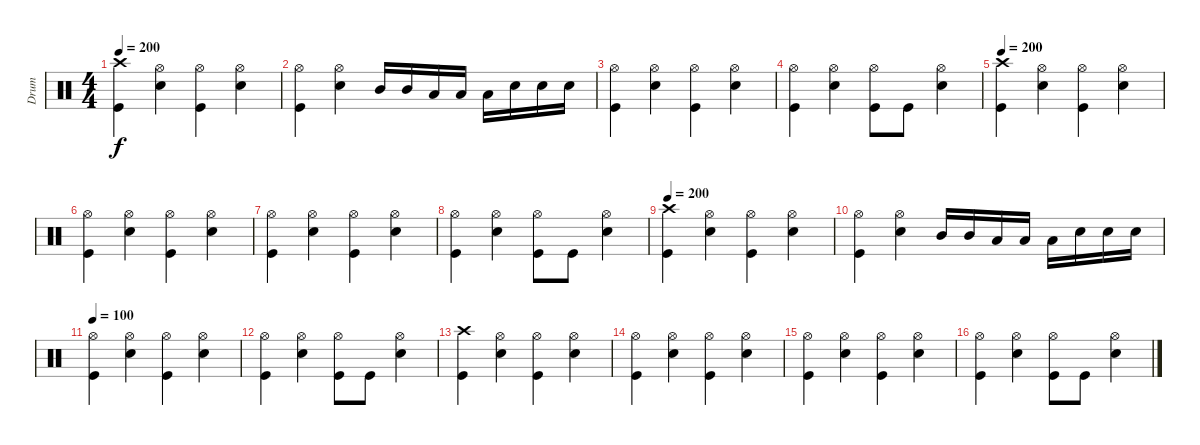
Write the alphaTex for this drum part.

\track ("Drum" "Drum") {instrument percussion}
\staff {score}
\articulation defaults
\ts (4 4)
\tempo 200
\clef neutral
\ks c
("Crash high (hit)" "Kick (hit)").4{dy f} ("Hi-Hat (open)" "Electric Snare (hit)").4 ("Hi-Hat (open)" "Kick (hit)").4 ("Hi-Hat (open)" "Electric Snare (hit)").4 |
("Hi-Hat (open)" "Kick (hit)").4 ("Hi-Hat (open)" "Electric Snare (hit)").4 "Mid Tom (hit)".16 "Mid Tom (hit)".16 "Low Tom (hit)".16 "Low Tom (hit)".16 "Low Tom (hit)".16 "Electric Snare (hit)".16 "Electric Snare (hit)".16 "Electric Snare (hit)".16 |
("Hi-Hat (open)" "Kick (hit)").4 ("Hi-Hat (open)" "Electric Snare (hit)").4 ("Hi-Hat (open)" "Kick (hit)").4 ("Hi-Hat (open)" "Electric Snare (hit)").4 |
("Hi-Hat (open)" "Kick (hit)").4 ("Hi-Hat (open)" "Electric Snare (hit)").4 ("Hi-Hat (open)" "Kick (hit)").8 "Kick (hit)".8 ("Hi-Hat (open)" "Electric Snare (hit)").4 |
\tempo 200
("Crash high (hit)" "Kick (hit)").4 ("Hi-Hat (open)" "Electric Snare (hit)").4 ("Hi-Hat (open)" "Kick (hit)").4 ("Hi-Hat (open)" "Electric Snare (hit)").4 |
("Hi-Hat (open)" "Kick (hit)").4 ("Hi-Hat (open)" "Electric Snare (hit)").4 ("Hi-Hat (open)" "Kick (hit)").4 ("Hi-Hat (open)" "Electric Snare (hit)").4 |
("Hi-Hat (open)" "Kick (hit)").4 ("Hi-Hat (open)" "Electric Snare (hit)").4 ("Hi-Hat (open)" "Kick (hit)").4 ("Hi-Hat (open)" "Electric Snare (hit)").4 |
("Hi-Hat (open)" "Kick (hit)").4 ("Hi-Hat (open)" "Electric Snare (hit)").4 ("Hi-Hat (open)" "Kick (hit)").8 "Kick (hit)".8 ("Hi-Hat (open)" "Electric Snare (hit)").4 |
\tempo 200
("Crash high (hit)" "Kick (hit)").4 ("Hi-Hat (open)" "Electric Snare (hit)").4 ("Hi-Hat (open)" "Kick (hit)").4 ("Hi-Hat (open)" "Electric Snare (hit)").4 |
("Hi-Hat (open)" "Kick (hit)").4 ("Hi-Hat (open)" "Electric Snare (hit)").4 "Mid Tom (hit)".16 "Mid Tom (hit)".16 "Low Tom (hit)".16 "Low Tom (hit)".16 "Low Tom (hit)".16 "Electric Snare (hit)".16 "Electric Snare (hit)".16 "Electric Snare (hit)".16 |
\tempo 100
("Hi-Hat (open)" "Kick (hit)").4 ("Hi-Hat (open)" "Electric Snare (hit)").4 ("Hi-Hat (open)" "Kick (hit)").4 ("Hi-Hat (open)" "Electric Snare (hit)").4 |
("Hi-Hat (open)" "Kick (hit)").4 ("Hi-Hat (open)" "Electric Snare (hit)").4 ("Hi-Hat (open)" "Kick (hit)").8 "Kick (hit)".8 ("Hi-Hat (open)" "Electric Snare (hit)").4 |
("Crash high (hit)" "Kick (hit)").4 ("Hi-Hat (open)" "Electric Snare (hit)").4 ("Hi-Hat (open)" "Kick (hit)").4 ("Hi-Hat (open)" "Electric Snare (hit)").4 |
("Hi-Hat (open)" "Kick (hit)").4 ("Hi-Hat (open)" "Electric Snare (hit)").4 ("Hi-Hat (open)" "Kick (hit)").4 ("Hi-Hat (open)" "Electric Snare (hit)").4 |
("Hi-Hat (open)" "Kick (hit)").4 ("Hi-Hat (open)" "Electric Snare (hit)").4 ("Hi-Hat (open)" "Kick (hit)").4 ("Hi-Hat (open)" "Electric Snare (hit)").4 |
("Hi-Hat (open)" "Kick (hit)").4 ("Hi-Hat (open)" "Electric Snare (hit)").4 ("Hi-Hat (open)" "Kick (hit)").8 "Kick (hit)".8 ("Hi-Hat (open)" "Electric Snare (hit)").4
